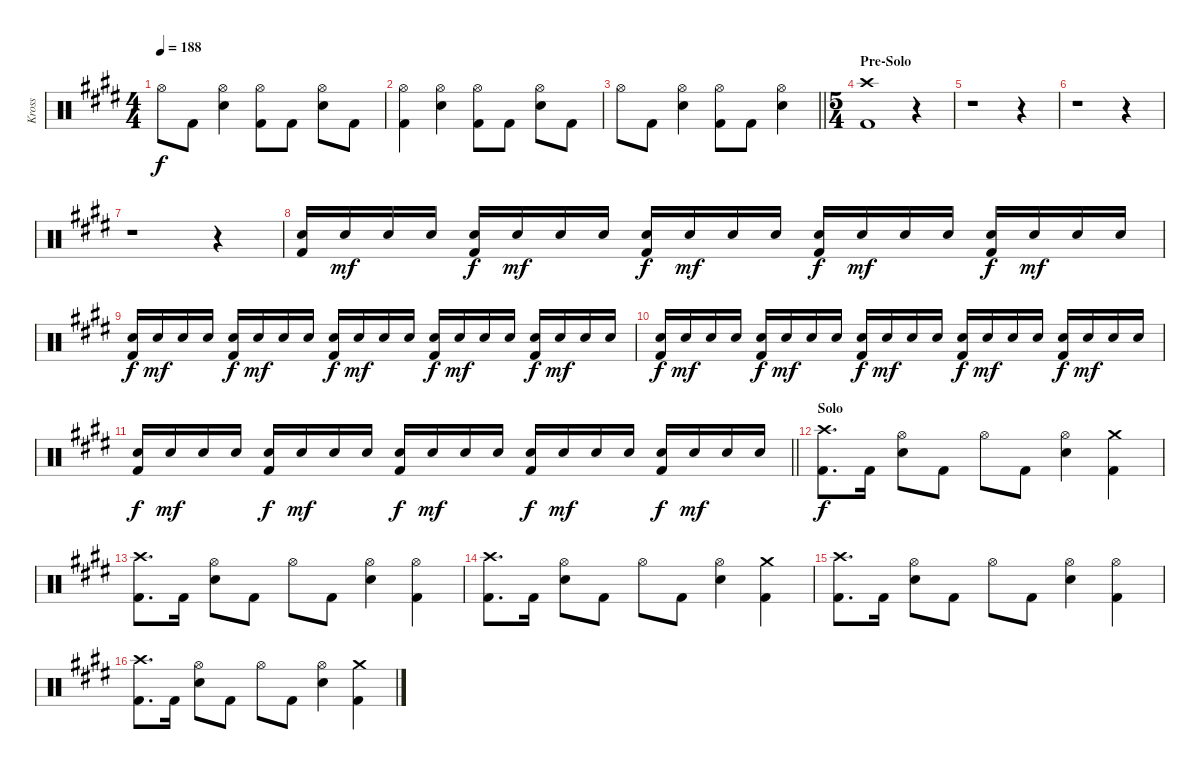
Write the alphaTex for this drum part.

\track ("Kross" "Kross") {instrument percussion}
\staff {score}
\articulation defaults
\ts (4 4)
\tempo 188
\clef neutral
\ks e "Hi-Hat (open)".8{dy f} "Kick (hit) 2".8
("Hi-Hat (open)" "Electric Snare (hit)").4 ("Hi-Hat (open)" "Kick (hit) 2").8 "Kick (hit) 2".8 ("Hi-Hat (open)" "Electric Snare (hit)").8 "Kick (hit) 2".8 |
("Hi-Hat (open)" "Kick (hit) 2").4 ("Hi-Hat (open)" "Electric Snare (hit)").4 ("Hi-Hat (open)" "Kick (hit) 2").8 "Kick (hit) 2".8 ("Hi-Hat (open)" "Electric Snare (hit)").8 "Kick (hit) 2".8 |
\barLineRight lightlight "Hi-Hat (open)".8 "Kick (hit) 2".8
("Hi-Hat (open)" "Electric Snare (hit)").4 ("Hi-Hat (open)" "Kick (hit) 2").8 "Kick (hit) 2".8 ("Hi-Hat (open)" "Electric Snare (hit)").4 |
\ts (5 4)
\section ("" "Pre-Solo")
("Crash high (hit)" "Kick (hit) 2").1 r.4 |
r.1 r.4 |
r.1 r.4 |
r.1 r.4 |
("Electric Snare (hit)" "Kick (hit) 2").16 "Electric Snare (hit)".16{dy mf} "Electric Snare (hit)".16 "Electric Snare (hit)".16 ("Electric Snare (hit)" "Kick (hit) 2").16{dy f} "Electric Snare (hit)".16{dy mf} "Electric Snare (hit)".16 "Electric Snare (hit)".16 ("Electric Snare (hit)" "Kick (hit) 2").16{dy f} "Electric Snare (hit)".16{dy mf} "Electric Snare (hit)".16 "Electric Snare (hit)".16 ("Electric Snare (hit)" "Kick (hit) 2").16{dy f} "Electric Snare (hit)".16{dy mf} "Electric Snare (hit)".16 "Electric Snare (hit)".16 ("Electric Snare (hit)" "Kick (hit) 2").16{dy f} "Electric Snare (hit)".16{dy mf} "Electric Snare (hit)".16 "Electric Snare (hit)".16 |
("Electric Snare (hit)" "Kick (hit) 2").16{dy f} "Electric Snare (hit)".16{dy mf} "Electric Snare (hit)".16 "Electric Snare (hit)".16 ("Electric Snare (hit)" "Kick (hit) 2").16{dy f} "Electric Snare (hit)".16{dy mf} "Electric Snare (hit)".16 "Electric Snare (hit)".16 ("Electric Snare (hit)" "Kick (hit) 2").16{dy f} "Electric Snare (hit)".16{dy mf} "Electric Snare (hit)".16 "Electric Snare (hit)".16 ("Electric Snare (hit)" "Kick (hit) 2").16{dy f} "Electric Snare (hit)".16{dy mf} "Electric Snare (hit)".16 "Electric Snare (hit)".16 ("Electric Snare (hit)" "Kick (hit) 2").16{dy f} "Electric Snare (hit)".16{dy mf} "Electric Snare (hit)".16 "Electric Snare (hit)".16 |
("Electric Snare (hit)" "Kick (hit) 2").16{dy f} "Electric Snare (hit)".16{dy mf} "Electric Snare (hit)".16 "Electric Snare (hit)".16 ("Electric Snare (hit)" "Kick (hit) 2").16{dy f} "Electric Snare (hit)".16{dy mf} "Electric Snare (hit)".16 "Electric Snare (hit)".16 ("Electric Snare (hit)" "Kick (hit) 2").16{dy f} "Electric Snare (hit)".16{dy mf} "Electric Snare (hit)".16 "Electric Snare (hit)".16 ("Electric Snare (hit)" "Kick (hit) 2").16{dy f} "Electric Snare (hit)".16{dy mf} "Electric Snare (hit)".16 "Electric Snare (hit)".16 ("Electric Snare (hit)" "Kick (hit) 2").16{dy f} "Electric Snare (hit)".16{dy mf} "Electric Snare (hit)".16 "Electric Snare (hit)".16 |
\barLineRight lightlight
("Electric Snare (hit)" "Kick (hit) 2").16{dy f} "Electric Snare (hit)".16{dy mf} "Electric Snare (hit)".16 "Electric Snare (hit)".16 ("Electric Snare (hit)" "Kick (hit) 2").16{dy f} "Electric Snare (hit)".16{dy mf} "Electric Snare (hit)".16 "Electric Snare (hit)".16 ("Electric Snare (hit)" "Kick (hit) 2").16{dy f} "Electric Snare (hit)".16{dy mf} "Electric Snare (hit)".16 "Electric Snare (hit)".16 ("Electric Snare (hit)" "Kick (hit) 2").16{dy f} "Electric Snare (hit)".16{dy mf} "Electric Snare (hit)".16 "Electric Snare (hit)".16 ("Electric Snare (hit)" "Kick (hit) 2").16{dy f} "Electric Snare (hit)".16{dy mf} "Electric Snare (hit)".16 "Electric Snare (hit)".16 |
\section ("" "Solo")
("Crash high (hit)" "Kick (hit) 2").8{d dy f} "Kick (hit) 2".16 ("Hi-Hat (open)" "Electric Snare (hit)").8 "Kick (hit) 2".8 "Hi-Hat (open)".8 "Kick (hit) 2".8 ("Hi-Hat (open)" "Electric Snare (hit)").4 ("Crash medium (hit)" "Kick (hit) 2").4 |
("Crash high (hit)" "Kick (hit) 2").8{d} "Kick (hit) 2".16 ("Hi-Hat (open)" "Electric Snare (hit)").8 "Kick (hit) 2".8 "Hi-Hat (open)".8 "Kick (hit) 2".8 ("Hi-Hat (open)" "Electric Snare (hit)").4 ("Hi-Hat (open)" "Kick (hit) 2").4 |
("Crash high (hit)" "Kick (hit) 2").8{d} "Kick (hit) 2".16 ("Hi-Hat (open)" "Electric Snare (hit)").8 "Kick (hit) 2".8 "Hi-Hat (open)".8 "Kick (hit) 2".8 ("Hi-Hat (open)" "Electric Snare (hit)").4 ("Crash medium (hit)" "Kick (hit) 2").4 |
("Crash high (hit)" "Kick (hit) 2").8{d} "Kick (hit) 2".16 ("Hi-Hat (open)" "Electric Snare (hit)").8 "Kick (hit) 2".8 "Hi-Hat (open)".8 "Kick (hit) 2".8 ("Hi-Hat (open)" "Electric Snare (hit)").4 ("Hi-Hat (open)" "Kick (hit) 2").4 |
("Crash high (hit)" "Kick (hit) 2").8{d} "Kick (hit) 2".16 ("Hi-Hat (open)" "Electric Snare (hit)").8 "Kick (hit) 2".8 "Hi-Hat (open)".8 "Kick (hit) 2".8 ("Hi-Hat (open)" "Electric Snare (hit)").4 ("Crash medium (hit)" "Kick (hit) 2").4
